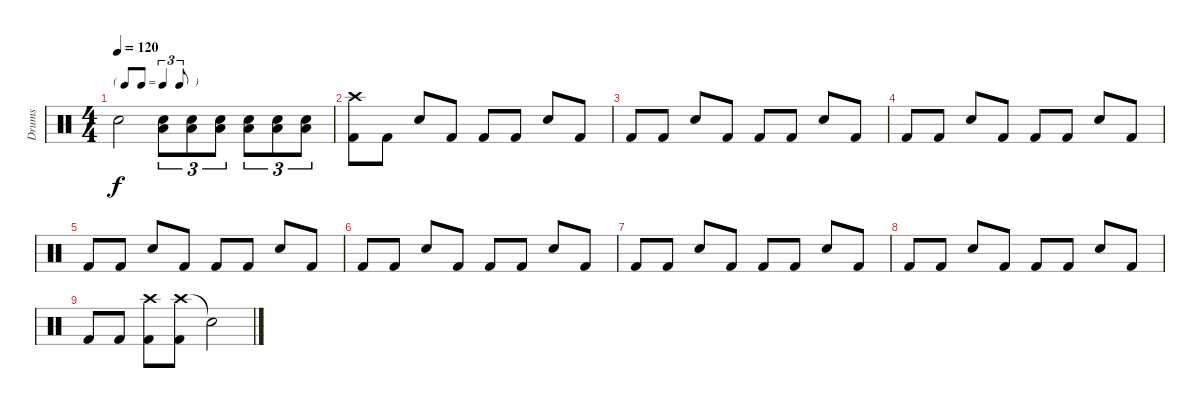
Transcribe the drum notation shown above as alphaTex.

\track ("Drums" "Drums") {instrument percussion}
\staff {score}
\articulation defaults
\ts (4 4)
\tf triplet8th
\tempo 120
\clef neutral
\ks c "Snare (hit)"{t}.2{dy f}
("Snare (hit) 2" "Low Floor Tom (hit)").8{tu (3 2)} ("Snare (hit) 2" "Low Floor Tom (hit)").8{tu (3 2)} ("Snare (hit) 2" "Low Floor Tom (hit)").8{tu (3 2)} ("Snare (hit) 2" "Low Floor Tom (hit)").8{tu (3 2)} ("Snare (hit) 2" "Low Floor Tom (hit)").8{tu (3 2)} ("Snare (hit) 2" "Low Floor Tom (hit)").8{tu (3 2)} |
("Crash high (hit)" "Kick (hit) 2").8 "Kick (hit) 2".8 "Snare (hit) 2".8 "Kick (hit) 2".8 "Kick (hit) 2".8 "Kick (hit) 2".8 "Snare (hit) 2".8 "Kick (hit) 2".8 |
"Kick (hit) 2".8 "Kick (hit) 2".8 "Snare (hit) 2".8 "Kick (hit) 2".8 "Kick (hit) 2".8 "Kick (hit) 2".8 "Snare (hit) 2".8 "Kick (hit) 2".8 |
"Kick (hit) 2".8 "Kick (hit) 2".8 "Snare (hit) 2".8 "Kick (hit) 2".8 "Kick (hit) 2".8 "Kick (hit) 2".8 "Snare (hit) 2".8 "Kick (hit) 2".8 |
"Kick (hit) 2".8 "Kick (hit) 2".8 "Snare (hit) 2".8 "Kick (hit) 2".8 "Kick (hit) 2".8 "Kick (hit) 2".8 "Snare (hit) 2".8 "Kick (hit) 2".8 |
"Kick (hit) 2".8 "Kick (hit) 2".8 "Snare (hit) 2".8 "Kick (hit) 2".8 "Kick (hit) 2".8 "Kick (hit) 2".8 "Snare (hit) 2".8 "Kick (hit) 2".8 |
"Kick (hit) 2".8 "Kick (hit) 2".8 "Snare (hit) 2".8 "Kick (hit) 2".8 "Kick (hit) 2".8 "Kick (hit) 2".8 "Snare (hit) 2".8 "Kick (hit) 2".8 |
"Kick (hit) 2".8 "Kick (hit) 2".8 "Snare (hit) 2".8 "Kick (hit) 2".8 "Kick (hit) 2".8 "Kick (hit) 2".8 "Snare (hit) 2".8 "Kick (hit) 2".8 |
"Kick (hit) 2".8 "Kick (hit) 2".8 ("Crash high (hit)" "Kick (hit) 2").8 ("Crash high (hit)" "Kick (hit) 2").8 "Snare (hit)"{t}.2
